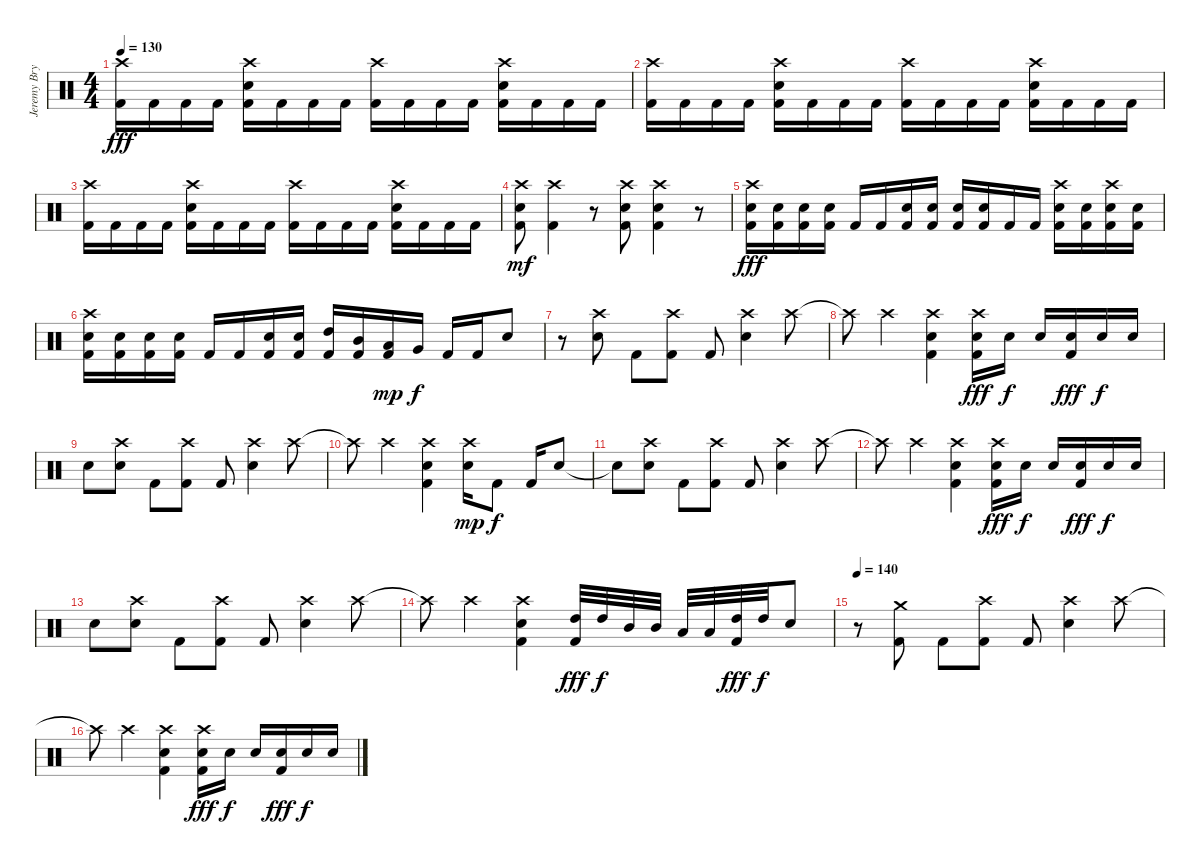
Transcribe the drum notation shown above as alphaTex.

\track ("Jeremy Bryan - Drums" "Jeremy Bry") {instrument percussion}
\staff {score}
\articulation defaults
\ts (4 4)
\tempo 130
\clef neutral
\ks c
("Crash high (hit)" "Kick (hit) 2").16{dy fff} "Kick (hit) 2".16 "Kick (hit) 2".16 "Kick (hit) 2".16 ("Crash high (hit)" "Electric Snare (hit)" "Kick (hit) 2").16 "Kick (hit) 2".16 "Kick (hit) 2".16 "Kick (hit) 2".16 ("Crash high (hit)" "Kick (hit) 2").16 "Kick (hit) 2".16 "Kick (hit) 2".16 "Kick (hit) 2".16 ("Crash high (hit)" "Electric Snare (hit)" "Kick (hit) 2").16 "Kick (hit) 2".16 "Kick (hit) 2".16 "Kick (hit) 2".16 |
("Crash high (hit)" "Kick (hit) 2").16 "Kick (hit) 2".16 "Kick (hit) 2".16 "Kick (hit) 2".16 ("Crash high (hit)" "Electric Snare (hit)" "Kick (hit) 2").16 "Kick (hit) 2".16 "Kick (hit) 2".16 "Kick (hit) 2".16 ("Crash high (hit)" "Kick (hit) 2").16 "Kick (hit) 2".16 "Kick (hit) 2".16 "Kick (hit) 2".16 ("Crash high (hit)" "Electric Snare (hit)" "Kick (hit) 2").16 "Kick (hit) 2".16 "Kick (hit) 2".16 "Kick (hit) 2".16 |
("Crash high (hit)" "Kick (hit) 2").16 "Kick (hit) 2".16 "Kick (hit) 2".16 "Kick (hit) 2".16 ("Crash high (hit)" "Electric Snare (hit)" "Kick (hit) 2").16 "Kick (hit) 2".16 "Kick (hit) 2".16 "Kick (hit) 2".16 ("Crash high (hit)" "Kick (hit) 2").16 "Kick (hit) 2".16 "Kick (hit) 2".16 "Kick (hit) 2".16 ("Crash high (hit)" "Electric Snare (hit)" "Kick (hit) 2").16 "Kick (hit) 2".16 "Kick (hit) 2".16 "Kick (hit) 2".16 |
("Crash high (hit)" "Electric Snare (hit)" "Kick (hit) 2").8{dy mf} ("Crash high (hit)" "Kick (hit) 2").4 r.8 ("Crash high (hit)" "Electric Snare (hit)" "Kick (hit) 2").8 ("Crash high (hit)" "Electric Snare (hit)" "Kick (hit) 2").4 r.8 |
("Crash high (hit)" "Electric Snare (hit)" "Kick (hit) 2").16{dy fff} ("Electric Snare (hit)" "Kick (hit) 2").16 ("Electric Snare (hit)" "Kick (hit) 2").16 ("Electric Snare (hit)" "Kick (hit) 2").16 "Kick (hit) 2".16 "Kick (hit) 2".16 ("Electric Snare (hit)" "Kick (hit) 2").16 ("Electric Snare (hit)" "Kick (hit) 2").16 ("Electric Snare (hit)" "Kick (hit) 2").16 ("Electric Snare (hit)" "Kick (hit) 2").16 "Kick (hit) 2".16 "Kick (hit) 2".16 ("Crash high (hit)" "Electric Snare (hit)" "Kick (hit) 2").16 ("Electric Snare (hit)" "Kick (hit) 2").16 ("Crash high (hit)" "Electric Snare (hit)" "Kick (hit) 2").16 ("Electric Snare (hit)" "Kick (hit) 2").16 |
("Crash high (hit)" "Electric Snare (hit)" "Kick (hit) 2").16 ("Electric Snare (hit)" "Kick (hit) 2").16 ("Electric Snare (hit)" "Kick (hit) 2").16 ("Electric Snare (hit)" "Kick (hit) 2").16 "Kick (hit) 2".16 "Kick (hit) 2".16 ("Electric Snare (hit)" "Kick (hit) 2").16 ("Electric Snare (hit)" "Kick (hit) 2").16 ("High Tom (hit)" "Kick (hit) 2").16 ("Mid Tom (hit)" "Kick (hit) 2").16 ("Low Tom (hit)" "Kick (hit) 2").16{dy mp} "Very Low Tom (hit)".16{dy f} "Kick (hit) 2".16 "Kick (hit) 2".16 "Electric Snare (hit)".8 |
r.8 ("Crash high (hit)" "Electric Snare (hit)").8 "Kick (hit) 2".8 ("Crash high (hit)" "Kick (hit) 2").8 "Kick (hit) 2".8 ("Crash high (hit)" "Electric Snare (hit)").4 "Crash high (hit)".8 |
"Crash high (hit)"{t}.8 "Crash high (hit)".4 ("Crash high (hit)" "Electric Snare (hit)" "Kick (hit) 2").4 ("Crash high (hit)" "Electric Snare (hit)" "Kick (hit) 2").16{dy fff} "Electric Snare (hit)".16{dy f} "Electric Snare (hit)".16 ("Electric Snare (hit)" "Kick (hit) 2").16{dy fff} "Electric Snare (hit)".16{dy f} "Electric Snare (hit)".16 |
"Electric Snare (hit)".8 ("Crash high (hit)" "Electric Snare (hit)").8 "Kick (hit) 2".8 ("Crash high (hit)" "Kick (hit) 2").8 "Kick (hit) 2".8 ("Crash high (hit)" "Electric Snare (hit)").4 "Crash high (hit)".8 |
"Crash high (hit)"{t}.8 "Crash high (hit)".4 ("Crash high (hit)" "Electric Snare (hit)" "Kick (hit) 2").4 ("Crash high (hit)" "Electric Snare (hit)").16{dy mp} "Kick (hit) 2".8{dy f} "Kick (hit) 2".16 "Electric Snare (hit)".8 |
"Electric Snare (hit)"{t}.8 ("Crash high (hit)" "Electric Snare (hit)").8 "Kick (hit) 2".8 ("Crash high (hit)" "Kick (hit) 2").8 "Kick (hit) 2".8 ("Crash high (hit)" "Electric Snare (hit)").4 "Crash high (hit)".8 |
"Crash high (hit)"{t}.8 "Crash high (hit)".4 ("Crash high (hit)" "Electric Snare (hit)" "Kick (hit) 2").4 ("Crash high (hit)" "Electric Snare (hit)" "Kick (hit) 2").16{dy fff} "Electric Snare (hit)".16{dy f} "Electric Snare (hit)".16 ("Electric Snare (hit)" "Kick (hit) 2").16{dy fff} "Electric Snare (hit)".16{dy f} "Electric Snare (hit)".16 |
"Electric Snare (hit)".8 ("Crash high (hit)" "Electric Snare (hit)").8 "Kick (hit) 2".8 ("Crash high (hit)" "Kick (hit) 2").8 "Kick (hit) 2".8 ("Crash high (hit)" "Electric Snare (hit)").4 "Crash high (hit)".8 |
"Crash high (hit)"{t}.8 "Crash high (hit)".4 ("Crash high (hit)" "Electric Snare (hit)" "Kick (hit) 2").4 ("High Tom (hit)" "Kick (hit) 2").32{dy fff} "High Tom (hit)".32{dy f} "Mid Tom (hit)".32 "Mid Tom (hit)".32 "Low Tom (hit)".32 "Low Tom (hit)".32 ("High Tom (hit)" "Kick (hit) 2").32{dy fff} "High Tom (hit)".32{dy f} "Electric Snare (hit)".8 |
\tempo 140
r.8 ("Crash medium (hit)" "Kick (hit) 2").8 "Kick (hit) 2".8 ("Crash high (hit)" "Kick (hit) 2").8 "Kick (hit) 2".8 ("Crash high (hit)" "Electric Snare (hit)").4 "Crash high (hit)".8 |
"Crash high (hit)"{t}.8 "Crash high (hit)".4 ("Crash high (hit)" "Electric Snare (hit)" "Kick (hit) 2").4 ("Crash high (hit)" "Electric Snare (hit)" "Kick (hit) 2").16{dy fff} "Electric Snare (hit)".16{dy f} "Electric Snare (hit)".16 ("Electric Snare (hit)" "Kick (hit) 2").16{dy fff} "Electric Snare (hit)".16{dy f} "Electric Snare (hit)".16
